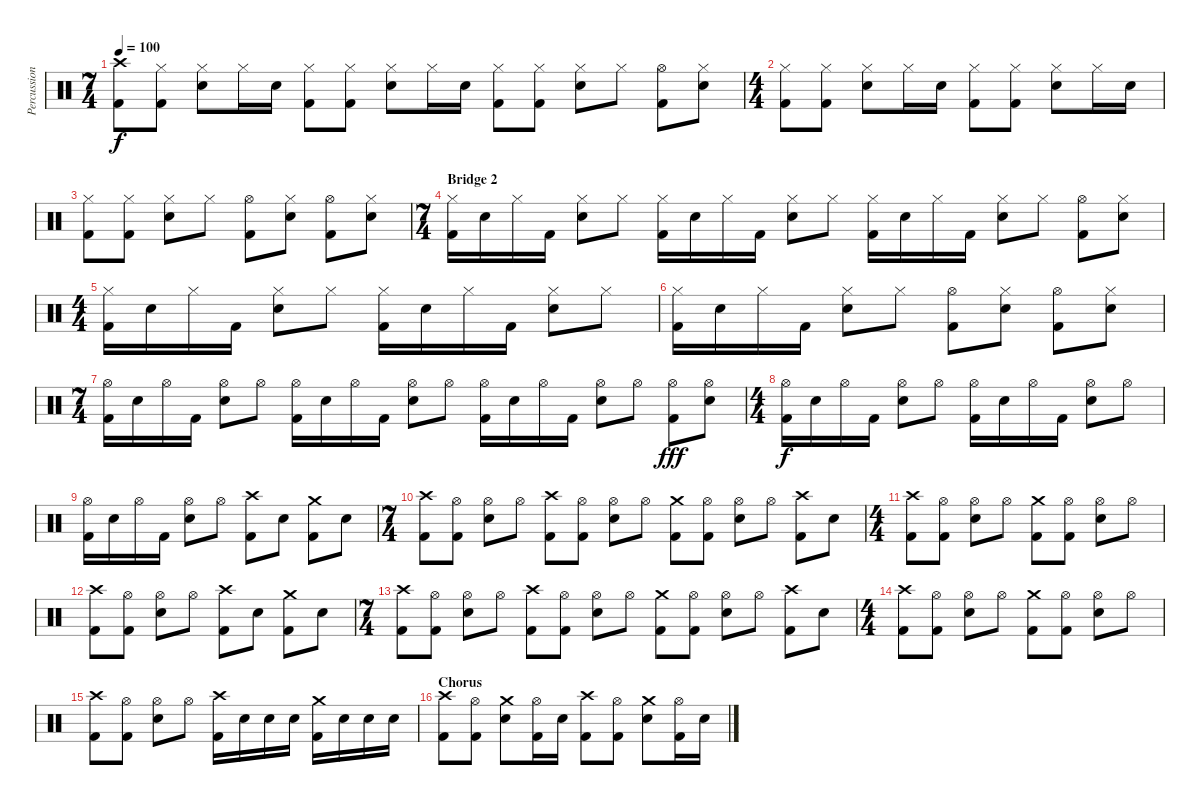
\track ("Percussion" "Percussion") {instrument percussion}
\staff {score}
\articulation defaults
\ts (7 4)
\tempo 100
\clef neutral
\ks c
("Crash high (hit)" "Kick (hit) 2").8{dy f} ("Hi-Hat (closed)" "Kick (hit) 2").8 ("Hi-Hat (closed)" "Electric Snare (hit)").8 "Hi-Hat (closed)".16 "Electric Snare (hit)".16 ("Hi-Hat (closed)" "Kick (hit) 2").8 ("Hi-Hat (closed)" "Kick (hit) 2").8 ("Hi-Hat (closed)" "Electric Snare (hit)").8 "Hi-Hat (closed)".16 "Electric Snare (hit)".16 ("Hi-Hat (closed)" "Kick (hit) 2").8 ("Hi-Hat (closed)" "Kick (hit) 2").8 ("Hi-Hat (closed)" "Electric Snare (hit)").8 "Hi-Hat (closed)".8 ("Hi-Hat (open)" "Kick (hit) 2").8 ("Hi-Hat (closed)" "Electric Snare (hit)").8 |
\ts (4 4)
("Hi-Hat (closed)" "Kick (hit) 2").8 ("Hi-Hat (closed)" "Kick (hit) 2").8 ("Hi-Hat (closed)" "Electric Snare (hit)").8 "Hi-Hat (closed)".16 "Electric Snare (hit)".16 ("Hi-Hat (closed)" "Kick (hit) 2").8 ("Hi-Hat (closed)" "Kick (hit) 2").8 ("Hi-Hat (closed)" "Electric Snare (hit)").8 "Hi-Hat (closed)".16 "Electric Snare (hit)".16 |
("Hi-Hat (closed)" "Kick (hit) 2").8 ("Hi-Hat (closed)" "Kick (hit) 2").8 ("Hi-Hat (closed)" "Electric Snare (hit)").8 "Hi-Hat (closed)".8 ("Hi-Hat (open)" "Kick (hit) 2").8 ("Hi-Hat (closed)" "Electric Snare (hit)").8 ("Hi-Hat (open)" "Kick (hit) 2").8 ("Hi-Hat (closed)" "Electric Snare (hit)").8 |
\ts (7 4)
\section ("" "Bridge 2")
("Hi-Hat (closed)" "Kick (hit) 2").16 "Electric Snare (hit)".16 "Hi-Hat (closed)".16 "Kick (hit) 2".16 ("Hi-Hat (closed)" "Electric Snare (hit)").8 "Hi-Hat (closed)".8 ("Hi-Hat (closed)" "Kick (hit) 2").16 "Electric Snare (hit)".16 "Hi-Hat (closed)".16 "Kick (hit) 2".16 ("Hi-Hat (closed)" "Electric Snare (hit)").8 "Hi-Hat (closed)".8 ("Hi-Hat (closed)" "Kick (hit) 2").16 "Electric Snare (hit)".16 "Hi-Hat (closed)".16 "Kick (hit) 2".16 ("Hi-Hat (closed)" "Electric Snare (hit)").8 "Hi-Hat (closed)".8 ("Hi-Hat (open)" "Kick (hit) 2").8 ("Hi-Hat (closed)" "Electric Snare (hit)").8 |
\ts (4 4)
("Hi-Hat (closed)" "Kick (hit) 2").16 "Electric Snare (hit)".16 "Hi-Hat (closed)".16 "Kick (hit) 2".16 ("Hi-Hat (closed)" "Electric Snare (hit)").8 "Hi-Hat (closed)".8 ("Hi-Hat (closed)" "Kick (hit) 2").16 "Electric Snare (hit)".16 "Hi-Hat (closed)".16 "Kick (hit) 2".16 ("Hi-Hat (closed)" "Electric Snare (hit)").8 "Hi-Hat (closed)".8 |
("Hi-Hat (closed)" "Kick (hit) 2").16 "Electric Snare (hit)".16 "Hi-Hat (closed)".16 "Kick (hit) 2".16 ("Hi-Hat (closed)" "Electric Snare (hit)").8 "Hi-Hat (closed)".8 ("Hi-Hat (open)" "Kick (hit) 2").8 ("Hi-Hat (closed)" "Electric Snare (hit)").8 ("Hi-Hat (open)" "Kick (hit) 2").8 ("Hi-Hat (closed)" "Electric Snare (hit)").8 |
\ts (7 4)
("Hi-Hat (open)" "Kick (hit) 2").16 "Electric Snare (hit)".16 "Hi-Hat (open)".16 "Kick (hit) 2".16 ("Hi-Hat (open)" "Electric Snare (hit)").8 "Hi-Hat (open)".8 ("Hi-Hat (open)" "Kick (hit) 2").16 "Electric Snare (hit)".16 "Hi-Hat (open)".16 "Kick (hit) 2".16 ("Hi-Hat (open)" "Electric Snare (hit)").8 "Hi-Hat (open)".8 ("Hi-Hat (open)" "Kick (hit) 2").16 "Electric Snare (hit)".16 "Hi-Hat (open)".16 "Kick (hit) 2".16 ("Hi-Hat (open)" "Electric Snare (hit)").8 "Hi-Hat (open)".8 ("Hi-Hat (open)" "Kick (hit) 2").8{dy fff} ("Hi-Hat (open)" "Electric Snare (hit)").8 |
\ts (4 4)
("Hi-Hat (open)" "Kick (hit) 2").16{dy f} "Electric Snare (hit)".16 "Hi-Hat (open)".16 "Kick (hit) 2".16 ("Hi-Hat (open)" "Electric Snare (hit)").8 "Hi-Hat (open)".8 ("Hi-Hat (open)" "Kick (hit) 2").16 "Electric Snare (hit)".16 "Hi-Hat (open)".16 "Kick (hit) 2".16 ("Hi-Hat (open)" "Electric Snare (hit)").8 "Hi-Hat (open)".8 |
("Hi-Hat (open)" "Kick (hit) 2").16 "Electric Snare (hit)".16 "Hi-Hat (open)".16 "Kick (hit) 2".16 ("Hi-Hat (open)" "Electric Snare (hit)").8 "Hi-Hat (open)".8 ("Crash high (hit)" "Kick (hit) 2").8 "Electric Snare (hit)".8 ("Crash medium (hit)" "Kick (hit) 2").8 "Electric Snare (hit)".8 |
\ts (7 4)
("Crash high (hit)" "Kick (hit) 2").8 ("Hi-Hat (open)" "Kick (hit) 2").8 ("Hi-Hat (open)" "Electric Snare (hit)").8 "Hi-Hat (open)".8 ("Crash high (hit)" "Kick (hit) 2").8 ("Hi-Hat (open)" "Kick (hit) 2").8 ("Hi-Hat (open)" "Electric Snare (hit)").8 "Hi-Hat (open)".8 ("Crash medium (hit)" "Kick (hit) 2").8 ("Hi-Hat (open)" "Kick (hit) 2").8 ("Hi-Hat (open)" "Electric Snare (hit)").8 "Hi-Hat (open)".8 ("Crash high (hit)" "Kick (hit) 2").8 "Electric Snare (hit)".8 |
\ts (4 4)
("Crash high (hit)" "Kick (hit) 2").8 ("Hi-Hat (open)" "Kick (hit) 2").8 ("Hi-Hat (open)" "Electric Snare (hit)").8 "Hi-Hat (open)".8 ("Crash medium (hit)" "Kick (hit) 2").8 ("Hi-Hat (open)" "Kick (hit) 2").8 ("Hi-Hat (open)" "Electric Snare (hit)").8 "Hi-Hat (open)".8 |
("Crash high (hit)" "Kick (hit) 2").8 ("Hi-Hat (open)" "Kick (hit) 2").8 ("Hi-Hat (open)" "Electric Snare (hit)").8 "Hi-Hat (open)".8 ("Crash high (hit)" "Kick (hit) 2").8 "Electric Snare (hit)".8 ("Crash medium (hit)" "Kick (hit) 2").8 "Electric Snare (hit)".8 |
\ts (7 4)
("Crash high (hit)" "Kick (hit) 2").8 ("Hi-Hat (open)" "Kick (hit) 2").8 ("Hi-Hat (open)" "Electric Snare (hit)").8 "Hi-Hat (open)".8 ("Crash high (hit)" "Kick (hit) 2").8 ("Hi-Hat (open)" "Kick (hit) 2").8 ("Hi-Hat (open)" "Electric Snare (hit)").8 "Hi-Hat (open)".8 ("Crash medium (hit)" "Kick (hit) 2").8 ("Hi-Hat (open)" "Kick (hit) 2").8 ("Hi-Hat (open)" "Electric Snare (hit)").8 "Hi-Hat (open)".8 ("Crash high (hit)" "Kick (hit) 2").8 "Electric Snare (hit)".8 |
\ts (4 4)
("Crash high (hit)" "Kick (hit) 2").8 ("Hi-Hat (open)" "Kick (hit) 2").8 ("Hi-Hat (open)" "Electric Snare (hit)").8 "Hi-Hat (open)".8 ("Crash medium (hit)" "Kick (hit) 2").8 ("Hi-Hat (open)" "Kick (hit) 2").8 ("Hi-Hat (open)" "Electric Snare (hit)").8 "Hi-Hat (open)".8 |
("Crash high (hit)" "Kick (hit) 2").8 ("Hi-Hat (open)" "Kick (hit) 2").8 ("Hi-Hat (open)" "Electric Snare (hit)").8 "Hi-Hat (open)".8 ("Crash high (hit)" "Kick (hit) 2").16 "Electric Snare (hit)".16 "Electric Snare (hit)".16 "Electric Snare (hit)".16 ("Crash medium (hit)" "Kick (hit) 2").16 "Electric Snare (hit)".16 "Electric Snare (hit)".16 "Electric Snare (hit)".16 |
\section ("" "Chorus")
("Crash high (hit)" "Kick (hit) 2").8 ("Hi-Hat (open)" "Kick (hit) 2").8 ("Crash medium (hit)" "Electric Snare (hit)").8 ("Hi-Hat (open)" "Kick (hit) 2").16 "Electric Snare (hit)".16 ("Crash high (hit)" "Kick (hit) 2").8 ("Hi-Hat (open)" "Kick (hit) 2").8 ("Crash medium (hit)" "Electric Snare (hit)").8 ("Hi-Hat (open)" "Kick (hit) 2").16 "Electric Snare (hit)".16
